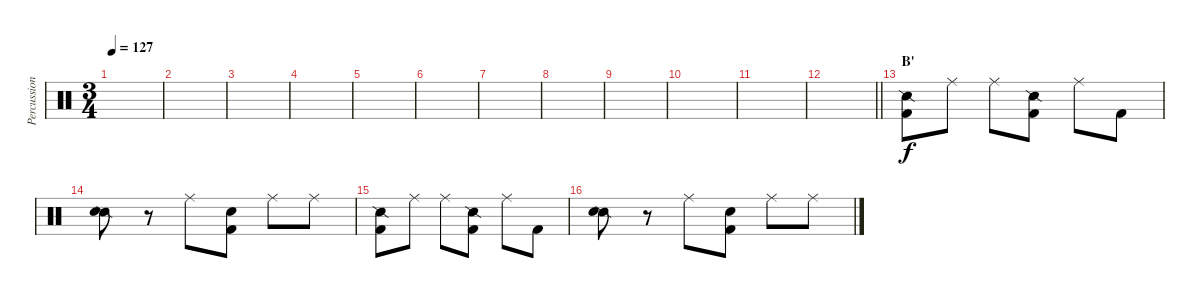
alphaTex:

\track ("Percussion" "Percussion") {instrument percussion}
\staff {score}
\articulation defaults
\ts (3 4)
\tempo 127
\clef neutral
\ks c
|
|
|
|
|
|
|
|
|
|
|
\barLineRight lightlight
|
\section ("" "B'")
("Snare (side stick) 2" "Kick (hit) 2").8 "Ride (middle)".8 "Ride (middle)".8 ("Snare (side stick) 2" "Kick (hit) 2").8 "Ride (middle)".8 "Kick (hit) 2".8 |
("Snare (side stick) 2" "Snare (hit) 2").8 r.8 "Ride (middle)".8 ("Snare (hit)" "Kick (hit) 2").8 "Ride (middle)".8 "Ride (middle)".8 |
("Snare (side stick) 2" "Kick (hit) 2").8 "Ride (middle)".8 "Ride (middle)".8 ("Snare (side stick) 2" "Kick (hit) 2").8 "Ride (middle)".8 "Kick (hit) 2".8 |
("Snare (side stick) 2" "Snare (hit) 2").8 r.8 "Ride (middle)".8 ("Snare (hit)" "Kick (hit) 2").8 "Ride (middle)".8 "Ride (middle)".8
